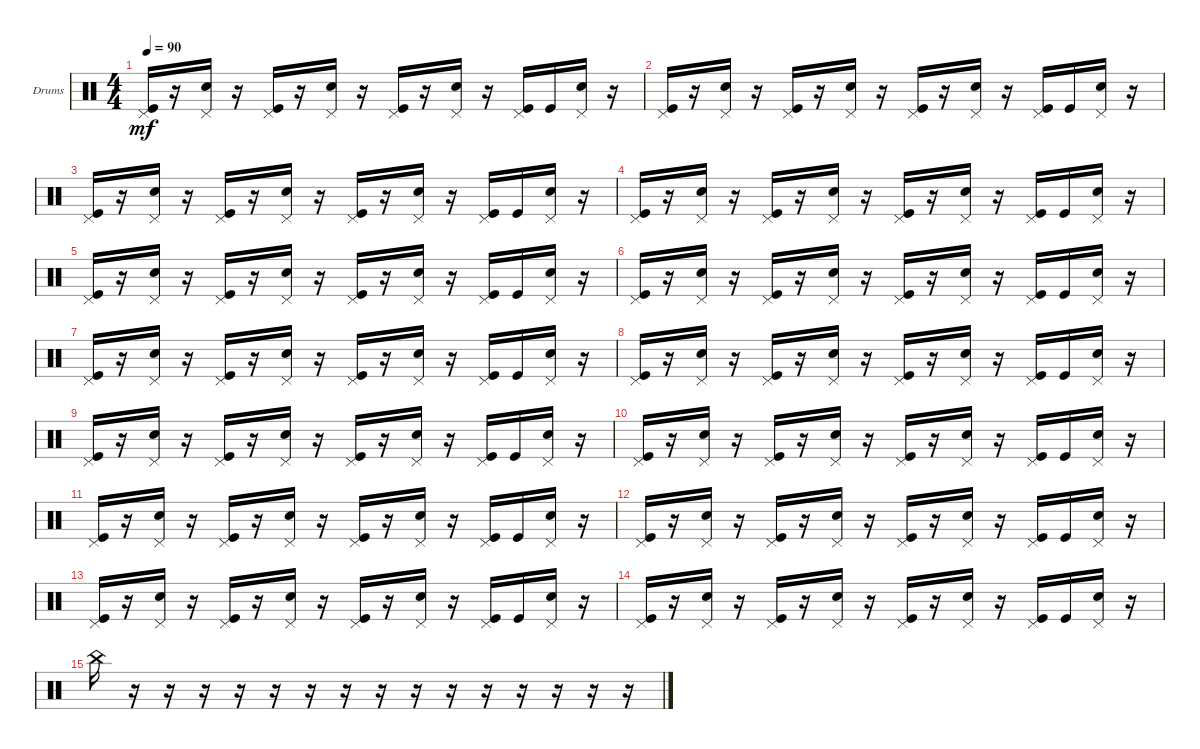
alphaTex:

\defaultSystemsLayout 4
\bracketExtendMode groupsimilarinstruments
\firstSystemTrackNameOrientation horizontal
\otherSystemsTrackNameOrientation horizontal
\track ("Drumkit" "Drums") {instrument percussion}
\staff {score}
\articulation defaults
\ts (4 4)
\tempo 90
\clef neutral
\ks c
("Kick (hit)" "Pedal Hi-Hat (hit)").16{dy mf} r.16 ("Snare (hit) 2" "Pedal Hi-Hat (hit)").16 r.16 ("Kick (hit)" "Pedal Hi-Hat (hit)").16 r.16 ("Snare (hit) 2" "Pedal Hi-Hat (hit)").16 r.16 ("Pedal Hi-Hat (hit)" "Kick (hit)").16 r.16 ("Snare (hit) 2" "Pedal Hi-Hat (hit)").16 r.16 ("Pedal Hi-Hat (hit)" "Kick (hit)").16 "Kick (hit)".16 ("Snare (hit) 2" "Pedal Hi-Hat (hit)").16 r.16 |
("Kick (hit)" "Pedal Hi-Hat (hit)").16 r.16 ("Snare (hit) 2" "Pedal Hi-Hat (hit)").16 r.16 ("Kick (hit)" "Pedal Hi-Hat (hit)").16 r.16 ("Snare (hit) 2" "Pedal Hi-Hat (hit)").16 r.16 ("Pedal Hi-Hat (hit)" "Kick (hit)").16 r.16 ("Snare (hit) 2" "Pedal Hi-Hat (hit)").16 r.16 ("Pedal Hi-Hat (hit)" "Kick (hit)").16 "Kick (hit)".16 ("Snare (hit) 2" "Pedal Hi-Hat (hit)").16 r.16 |
("Kick (hit)" "Pedal Hi-Hat (hit)").16 r.16 ("Snare (hit) 2" "Pedal Hi-Hat (hit)").16 r.16 ("Kick (hit)" "Pedal Hi-Hat (hit)").16 r.16 ("Snare (hit) 2" "Pedal Hi-Hat (hit)").16 r.16 ("Pedal Hi-Hat (hit)" "Kick (hit)").16 r.16 ("Snare (hit) 2" "Pedal Hi-Hat (hit)").16 r.16 ("Pedal Hi-Hat (hit)" "Kick (hit)").16 "Kick (hit)".16 ("Snare (hit) 2" "Pedal Hi-Hat (hit)").16 r.16 |
("Kick (hit)" "Pedal Hi-Hat (hit)").16 r.16 ("Snare (hit) 2" "Pedal Hi-Hat (hit)").16 r.16 ("Kick (hit)" "Pedal Hi-Hat (hit)").16 r.16 ("Snare (hit) 2" "Pedal Hi-Hat (hit)").16 r.16 ("Pedal Hi-Hat (hit)" "Kick (hit)").16 r.16 ("Snare (hit) 2" "Pedal Hi-Hat (hit)").16 r.16 ("Pedal Hi-Hat (hit)" "Kick (hit)").16 "Kick (hit)".16 ("Snare (hit) 2" "Pedal Hi-Hat (hit)").16 r.16 |
("Kick (hit)" "Pedal Hi-Hat (hit)").16 r.16 ("Snare (hit) 2" "Pedal Hi-Hat (hit)").16 r.16 ("Kick (hit)" "Pedal Hi-Hat (hit)").16 r.16 ("Snare (hit) 2" "Pedal Hi-Hat (hit)").16 r.16 ("Pedal Hi-Hat (hit)" "Kick (hit)").16 r.16 ("Snare (hit) 2" "Pedal Hi-Hat (hit)").16 r.16 ("Pedal Hi-Hat (hit)" "Kick (hit)").16 "Kick (hit)".16 ("Snare (hit) 2" "Pedal Hi-Hat (hit)").16 r.16 |
("Kick (hit)" "Pedal Hi-Hat (hit)").16 r.16 ("Snare (hit) 2" "Pedal Hi-Hat (hit)").16 r.16 ("Kick (hit)" "Pedal Hi-Hat (hit)").16 r.16 ("Snare (hit) 2" "Pedal Hi-Hat (hit)").16 r.16 ("Pedal Hi-Hat (hit)" "Kick (hit)").16 r.16 ("Snare (hit) 2" "Pedal Hi-Hat (hit)").16 r.16 ("Pedal Hi-Hat (hit)" "Kick (hit)").16 "Kick (hit)".16 ("Snare (hit) 2" "Pedal Hi-Hat (hit)").16 r.16 |
("Kick (hit)" "Pedal Hi-Hat (hit)").16 r.16 ("Snare (hit) 2" "Pedal Hi-Hat (hit)").16 r.16 ("Kick (hit)" "Pedal Hi-Hat (hit)").16 r.16 ("Snare (hit) 2" "Pedal Hi-Hat (hit)").16 r.16 ("Pedal Hi-Hat (hit)" "Kick (hit)").16 r.16 ("Snare (hit) 2" "Pedal Hi-Hat (hit)").16 r.16 ("Pedal Hi-Hat (hit)" "Kick (hit)").16 "Kick (hit)".16 ("Snare (hit) 2" "Pedal Hi-Hat (hit)").16 r.16 |
("Kick (hit)" "Pedal Hi-Hat (hit)").16 r.16 ("Snare (hit) 2" "Pedal Hi-Hat (hit)").16 r.16 ("Kick (hit)" "Pedal Hi-Hat (hit)").16 r.16 ("Snare (hit) 2" "Pedal Hi-Hat (hit)").16 r.16 ("Pedal Hi-Hat (hit)" "Kick (hit)").16 r.16 ("Snare (hit) 2" "Pedal Hi-Hat (hit)").16 r.16 ("Pedal Hi-Hat (hit)" "Kick (hit)").16 "Kick (hit)".16 ("Snare (hit) 2" "Pedal Hi-Hat (hit)").16 r.16 |
("Kick (hit)" "Pedal Hi-Hat (hit)").16 r.16 ("Snare (hit) 2" "Pedal Hi-Hat (hit)").16 r.16 ("Kick (hit)" "Pedal Hi-Hat (hit)").16 r.16 ("Snare (hit) 2" "Pedal Hi-Hat (hit)").16 r.16 ("Pedal Hi-Hat (hit)" "Kick (hit)").16 r.16 ("Snare (hit) 2" "Pedal Hi-Hat (hit)").16 r.16 ("Pedal Hi-Hat (hit)" "Kick (hit)").16 "Kick (hit)".16 ("Snare (hit) 2" "Pedal Hi-Hat (hit)").16 r.16 |
("Kick (hit)" "Pedal Hi-Hat (hit)").16 r.16 ("Snare (hit) 2" "Pedal Hi-Hat (hit)").16 r.16 ("Kick (hit)" "Pedal Hi-Hat (hit)").16 r.16 ("Snare (hit) 2" "Pedal Hi-Hat (hit)").16 r.16 ("Pedal Hi-Hat (hit)" "Kick (hit)").16 r.16 ("Snare (hit) 2" "Pedal Hi-Hat (hit)").16 r.16 ("Pedal Hi-Hat (hit)" "Kick (hit)").16 "Kick (hit)".16 ("Snare (hit) 2" "Pedal Hi-Hat (hit)").16 r.16 |
("Kick (hit)" "Pedal Hi-Hat (hit)").16 r.16 ("Snare (hit) 2" "Pedal Hi-Hat (hit)").16 r.16 ("Kick (hit)" "Pedal Hi-Hat (hit)").16 r.16 ("Snare (hit) 2" "Pedal Hi-Hat (hit)").16 r.16 ("Pedal Hi-Hat (hit)" "Kick (hit)").16 r.16 ("Snare (hit) 2" "Pedal Hi-Hat (hit)").16 r.16 ("Pedal Hi-Hat (hit)" "Kick (hit)").16 "Kick (hit)".16 ("Snare (hit) 2" "Pedal Hi-Hat (hit)").16 r.16 |
("Kick (hit)" "Pedal Hi-Hat (hit)").16 r.16 ("Snare (hit) 2" "Pedal Hi-Hat (hit)").16 r.16 ("Kick (hit)" "Pedal Hi-Hat (hit)").16 r.16 ("Snare (hit) 2" "Pedal Hi-Hat (hit)").16 r.16 ("Pedal Hi-Hat (hit)" "Kick (hit)").16 r.16 ("Snare (hit) 2" "Pedal Hi-Hat (hit)").16 r.16 ("Pedal Hi-Hat (hit)" "Kick (hit)").16 "Kick (hit)".16 ("Snare (hit) 2" "Pedal Hi-Hat (hit)").16 r.16 |
("Kick (hit)" "Pedal Hi-Hat (hit)").16 r.16 ("Snare (hit) 2" "Pedal Hi-Hat (hit)").16 r.16 ("Kick (hit)" "Pedal Hi-Hat (hit)").16 r.16 ("Snare (hit) 2" "Pedal Hi-Hat (hit)").16 r.16 ("Pedal Hi-Hat (hit)" "Kick (hit)").16 r.16 ("Snare (hit) 2" "Pedal Hi-Hat (hit)").16 r.16 ("Pedal Hi-Hat (hit)" "Kick (hit)").16 "Kick (hit)".16 ("Snare (hit) 2" "Pedal Hi-Hat (hit)").16 r.16 |
("Kick (hit)" "Pedal Hi-Hat (hit)").16 r.16 ("Snare (hit) 2" "Pedal Hi-Hat (hit)").16 r.16 ("Kick (hit)" "Pedal Hi-Hat (hit)").16 r.16 ("Snare (hit) 2" "Pedal Hi-Hat (hit)").16 r.16 ("Pedal Hi-Hat (hit)" "Kick (hit)").16 r.16 ("Snare (hit) 2" "Pedal Hi-Hat (hit)").16 r.16 ("Pedal Hi-Hat (hit)" "Kick (hit)").16 "Kick (hit)".16 ("Snare (hit) 2" "Pedal Hi-Hat (hit)").16 r.16 |
"China (hit)".16 r.16 r.16 r.16 r.16 r.16 r.16 r.16 r.16 r.16 r.16 r.16 r.16 r.16 r.16 r.16
